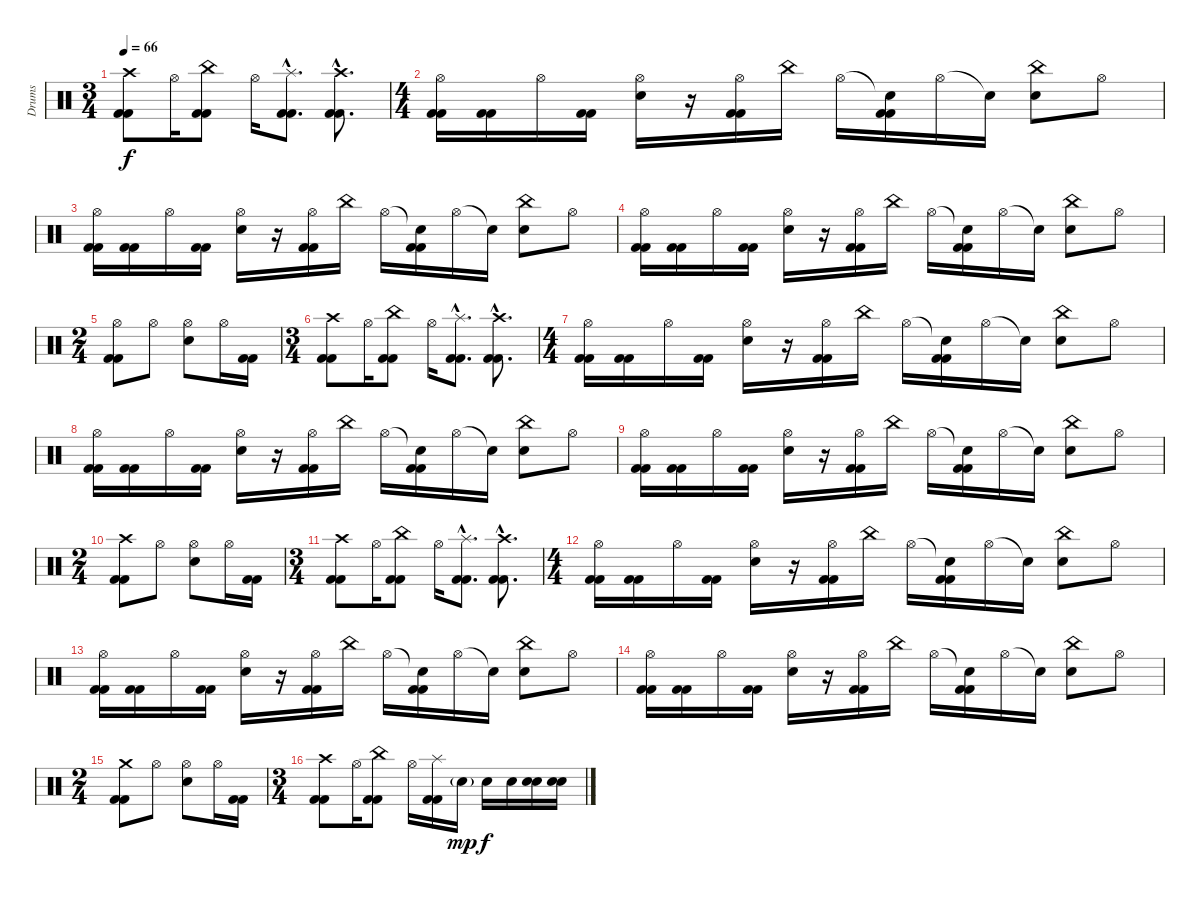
\track ("Drums" "Drums") {instrument percussion}
\staff {score}
\articulation defaults
\ts (3 4)
\tempo 66
\clef neutral
\ks c
("Crash high (hit)" "Kick (hit) 2" "Kick (hit) 2").8{dy f} "Hi-Hat (open)".16 ("China (hit)" "Kick (hit) 2" "Kick (hit) 2").8 "Hi-Hat (open)".16 ("Splash (hit)"{hac} "Kick (hit) 2"{hac} "Kick (hit) 2"{hac}).8{d} ("Crash high (hit)"{hac} "Kick (hit) 2"{hac} "Kick (hit) 2"{hac}).8{d} |
\ts (4 4)
("Hi-Hat (open)" "Kick (hit) 2" "Kick (hit) 2").16 ("Kick (hit) 2" "Kick (hit) 2").16 "Hi-Hat (open)".16 ("Kick (hit) 2" "Kick (hit) 2").16 ("Hi-Hat (open)" "Snare (hit) 2").16 r.16 ("Hi-Hat (open)" "Kick (hit) 2" "Kick (hit) 2").16 "China (hit)".16 "Hi-Hat (open)".16 ("Snare (hit)"{t} "Kick (hit) 2" "Kick (hit) 2").16 "Hi-Hat (open)".16 "Snare (hit)"{t}.16 ("China (hit)" "Snare (hit) 2").8 "Hi-Hat (open)".8 |
("Hi-Hat (open)" "Kick (hit) 2" "Kick (hit) 2").16 ("Kick (hit) 2" "Kick (hit) 2").16 "Hi-Hat (open)".16 ("Kick (hit) 2" "Kick (hit) 2").16 ("Hi-Hat (open)" "Snare (hit) 2").16 r.16 ("Hi-Hat (open)" "Kick (hit) 2" "Kick (hit) 2").16 "China (hit)".16 "Hi-Hat (open)".16 ("Snare (hit)"{t} "Kick (hit) 2" "Kick (hit) 2").16 "Hi-Hat (open)".16 "Snare (hit)"{t}.16 ("China (hit)" "Snare (hit) 2").8 "Hi-Hat (open)".8 |
("Hi-Hat (open)" "Kick (hit) 2" "Kick (hit) 2").16 ("Kick (hit) 2" "Kick (hit) 2").16 "Hi-Hat (open)".16 ("Kick (hit) 2" "Kick (hit) 2").16 ("Hi-Hat (open)" "Snare (hit) 2").16 r.16 ("Hi-Hat (open)" "Kick (hit) 2" "Kick (hit) 2").16 "China (hit)".16 "Hi-Hat (open)".16 ("Snare (hit)"{t} "Kick (hit) 2" "Kick (hit) 2").16 "Hi-Hat (open)".16 "Snare (hit)"{t}.16 ("China (hit)" "Snare (hit) 2").8 "Hi-Hat (open)".8 |
\ts (2 4)
("Hi-Hat (open)" "Kick (hit) 2" "Kick (hit) 2").8 "Hi-Hat (open)".8 ("Hi-Hat (open)" "Snare (hit) 2").8 "Hi-Hat (open)".16 ("Kick (hit) 2" "Kick (hit) 2").16 |
\ts (3 4)
("Crash high (hit)" "Kick (hit) 2" "Kick (hit) 2").8 "Hi-Hat (open)".16 ("China (hit)" "Kick (hit) 2" "Kick (hit) 2").8 "Hi-Hat (open)".16 ("Splash (hit)"{hac} "Kick (hit) 2"{hac} "Kick (hit) 2"{hac}).8{d} ("Crash high (hit)"{hac} "Kick (hit) 2"{hac} "Kick (hit) 2"{hac}).8{d} |
\ts (4 4)
("Hi-Hat (open)" "Kick (hit) 2" "Kick (hit) 2").16 ("Kick (hit) 2" "Kick (hit) 2").16 "Hi-Hat (open)".16 ("Kick (hit) 2" "Kick (hit) 2").16 ("Hi-Hat (open)" "Snare (hit) 2").16 r.16 ("Hi-Hat (open)" "Kick (hit) 2" "Kick (hit) 2").16 "China (hit)".16 "Hi-Hat (open)".16 ("Snare (hit)"{t} "Kick (hit) 2" "Kick (hit) 2").16 "Hi-Hat (open)".16 "Snare (hit)"{t}.16 ("China (hit)" "Snare (hit) 2").8 "Hi-Hat (open)".8 |
("Hi-Hat (open)" "Kick (hit) 2" "Kick (hit) 2").16 ("Kick (hit) 2" "Kick (hit) 2").16 "Hi-Hat (open)".16 ("Kick (hit) 2" "Kick (hit) 2").16 ("Hi-Hat (open)" "Snare (hit) 2").16 r.16 ("Hi-Hat (open)" "Kick (hit) 2" "Kick (hit) 2").16 "China (hit)".16 "Hi-Hat (open)".16 ("Snare (hit)"{t} "Kick (hit) 2" "Kick (hit) 2").16 "Hi-Hat (open)".16 "Snare (hit)"{t}.16 ("China (hit)" "Snare (hit) 2").8 "Hi-Hat (open)".8 |
("Hi-Hat (open)" "Kick (hit) 2" "Kick (hit) 2").16 ("Kick (hit) 2" "Kick (hit) 2").16 "Hi-Hat (open)".16 ("Kick (hit) 2" "Kick (hit) 2").16 ("Hi-Hat (open)" "Snare (hit) 2").16 r.16 ("Hi-Hat (open)" "Kick (hit) 2" "Kick (hit) 2").16 "China (hit)".16 "Hi-Hat (open)".16 ("Snare (hit)"{t} "Kick (hit) 2" "Kick (hit) 2").16 "Hi-Hat (open)".16 "Snare (hit)"{t}.16 ("China (hit)" "Snare (hit) 2").8 "Hi-Hat (open)".8 |
\ts (2 4)
("Crash high (hit)" "Kick (hit) 2" "Kick (hit) 2").8 "Hi-Hat (open)".8 ("Hi-Hat (open)" "Snare (hit) 2").8 "Hi-Hat (open)".16 ("Kick (hit) 2" "Kick (hit) 2").16 |
\ts (3 4)
("Crash high (hit)" "Kick (hit) 2" "Kick (hit) 2").8 "Hi-Hat (open)".16 ("China (hit)" "Kick (hit) 2" "Kick (hit) 2").8 "Hi-Hat (open)".16 ("Splash (hit)"{hac} "Kick (hit) 2"{hac} "Kick (hit) 2"{hac}).8{d} ("Crash high (hit)"{hac} "Kick (hit) 2"{hac} "Kick (hit) 2"{hac}).8{d} |
\ts (4 4)
("Hi-Hat (open)" "Kick (hit) 2" "Kick (hit) 2").16 ("Kick (hit) 2" "Kick (hit) 2").16 "Hi-Hat (open)".16 ("Kick (hit) 2" "Kick (hit) 2").16 ("Hi-Hat (open)" "Snare (hit) 2").16 r.16 ("Hi-Hat (open)" "Kick (hit) 2" "Kick (hit) 2").16 "China (hit)".16 "Hi-Hat (open)".16 ("Snare (hit)"{t} "Kick (hit) 2" "Kick (hit) 2").16 "Hi-Hat (open)".16 "Snare (hit)"{t}.16 ("China (hit)" "Snare (hit) 2").8 "Hi-Hat (open)".8 |
("Hi-Hat (open)" "Kick (hit) 2" "Kick (hit) 2").16 ("Kick (hit) 2" "Kick (hit) 2").16 "Hi-Hat (open)".16 ("Kick (hit) 2" "Kick (hit) 2").16 ("Hi-Hat (open)" "Snare (hit) 2").16 r.16 ("Hi-Hat (open)" "Kick (hit) 2" "Kick (hit) 2").16 "China (hit)".16 "Hi-Hat (open)".16 ("Snare (hit)"{t} "Kick (hit) 2" "Kick (hit) 2").16 "Hi-Hat (open)".16 "Snare (hit)"{t}.16 ("China (hit)" "Snare (hit) 2").8 "Hi-Hat (open)".8 |
("Hi-Hat (open)" "Kick (hit) 2" "Kick (hit) 2").16 ("Kick (hit) 2" "Kick (hit) 2").16 "Hi-Hat (open)".16 ("Kick (hit) 2" "Kick (hit) 2").16 ("Hi-Hat (open)" "Snare (hit) 2").16 r.16 ("Hi-Hat (open)" "Kick (hit) 2" "Kick (hit) 2").16 "China (hit)".16 "Hi-Hat (open)".16 ("Snare (hit)"{t} "Kick (hit) 2" "Kick (hit) 2").16 "Hi-Hat (open)".16 "Snare (hit)"{t}.16 ("China (hit)" "Snare (hit) 2").8 "Hi-Hat (open)".8 |
\ts (2 4)
("Crash medium (hit)" "Kick (hit) 2" "Kick (hit) 2").8 "Hi-Hat (open)".8 ("Hi-Hat (open)" "Snare (hit) 2").8 "Hi-Hat (open)".16 ("Kick (hit) 2" "Kick (hit) 2").16 |
\ts (3 4)
("Crash high (hit)" "Kick (hit) 2" "Kick (hit) 2").8 "Hi-Hat (open)".16 ("China (hit)" "Kick (hit) 2" "Kick (hit) 2").8 "Hi-Hat (open)".16 ("Splash (hit)" "Kick (hit) 2" "Kick (hit) 2").16 "Snare (hit) 2"{g}.16{dy mp} "Snare (hit) 2".16{dy f} "Snare (hit) 2".16 ("Snare (hit) 2" "Snare (hit) 2").16 ("Snare (hit) 2" "Snare (hit) 2").16
